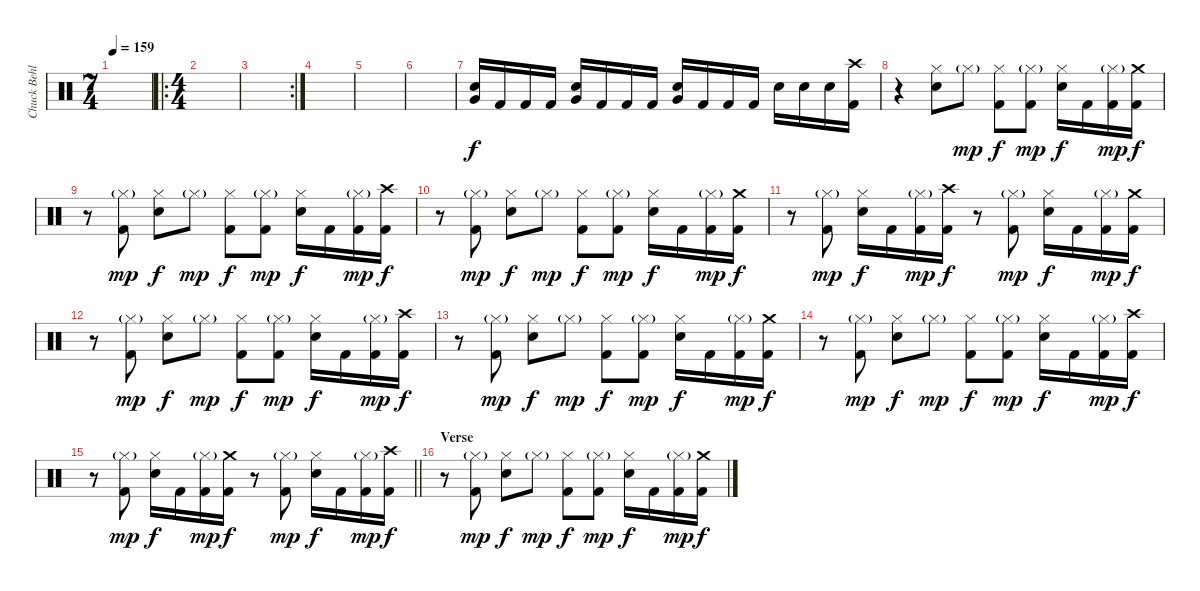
\track ("Chuck Behler" "Chuck Behl") {instrument percussion}
\staff {score}
\articulation defaults
\ts (7 4)
\tempo 159
\clef neutral
\ks c
|
\ro
\ts (4 4)
|
\rc 2
|
|
|
|
("Very Low Tom (hit)" "Snare (hit) 2").16 "Kick (hit) 2".16 "Kick (hit) 2".16 "Kick (hit) 2".16 ("Very Low Tom (hit)" "Snare (hit) 2").16 "Kick (hit) 2".16 "Kick (hit) 2".16 "Kick (hit) 2".16 ("Very Low Tom (hit)" "Snare (hit) 2").16 "Kick (hit) 2".16 "Kick (hit) 2".16 "Kick (hit) 2".16 "Electric Snare (hit)".16 "Electric Snare (hit)".16 "Electric Snare (hit)".16 ("Crash high (hit)" "Kick (hit) 2").16 |
r.4 ("Hi-Hat (closed)" "Snare (hit) 2").8 "Hi-Hat (closed)"{g}.8{dy mp} ("Hi-Hat (closed)" "Kick (hit) 2").8{dy f} ("Hi-Hat (closed)"{g} "Kick (hit) 2").8{dy mp} ("Hi-Hat (closed)" "Snare (hit) 2").16{dy f} "Kick (hit) 2".16 ("Hi-Hat (closed)"{g} "Kick (hit) 2").16{dy mp} ("Crash medium (hit)" "Kick (hit) 2").16{dy f} |
r.8 ("Hi-Hat (closed)"{g} "Kick (hit) 2").8{dy mp} ("Hi-Hat (closed)" "Snare (hit) 2").8{dy f} "Hi-Hat (closed)"{g}.8{dy mp} ("Hi-Hat (closed)" "Kick (hit) 2").8{dy f} ("Hi-Hat (closed)"{g} "Kick (hit) 2").8{dy mp} ("Hi-Hat (closed)" "Snare (hit) 2").16{dy f} "Kick (hit) 2".16 ("Hi-Hat (closed)"{g} "Kick (hit) 2").16{dy mp} ("Crash high (hit)" "Kick (hit) 2").16{dy f} |
r.8 ("Hi-Hat (closed)"{g} "Kick (hit) 2").8{dy mp} ("Hi-Hat (closed)" "Snare (hit) 2").8{dy f} "Hi-Hat (closed)"{g}.8{dy mp} ("Hi-Hat (closed)" "Kick (hit) 2").8{dy f} ("Hi-Hat (closed)"{g} "Kick (hit) 2").8{dy mp} ("Hi-Hat (closed)" "Snare (hit) 2").16{dy f} "Kick (hit) 2".16 ("Hi-Hat (closed)"{g} "Kick (hit) 2").16{dy mp} ("Crash medium (hit)" "Kick (hit) 2").16{dy f} |
r.8 ("Hi-Hat (closed)"{g} "Kick (hit) 2").8{dy mp} ("Hi-Hat (closed)" "Snare (hit) 2").16{dy f} "Kick (hit) 2".16 ("Hi-Hat (closed)"{g} "Kick (hit) 2").16{dy mp} ("Crash high (hit)" "Kick (hit) 2").16{dy f} r.8 ("Hi-Hat (closed)"{g} "Kick (hit) 2").8{dy mp} ("Hi-Hat (closed)" "Snare (hit) 2").16{dy f} "Kick (hit) 2".16 ("Hi-Hat (closed)"{g} "Kick (hit) 2").16{dy mp} ("Crash medium (hit)" "Kick (hit) 2").16{dy f} |
r.8 ("Hi-Hat (closed)"{g} "Kick (hit) 2").8{dy mp} ("Hi-Hat (closed)" "Snare (hit) 2").8{dy f} "Hi-Hat (closed)"{g}.8{dy mp} ("Hi-Hat (closed)" "Kick (hit) 2").8{dy f} ("Hi-Hat (closed)"{g} "Kick (hit) 2").8{dy mp} ("Hi-Hat (closed)" "Snare (hit) 2").16{dy f} "Kick (hit) 2".16 ("Hi-Hat (closed)"{g} "Kick (hit) 2").16{dy mp} ("Crash high (hit)" "Kick (hit) 2").16{dy f} |
r.8 ("Hi-Hat (closed)"{g} "Kick (hit) 2").8{dy mp} ("Hi-Hat (closed)" "Snare (hit) 2").8{dy f} "Hi-Hat (closed)"{g}.8{dy mp} ("Hi-Hat (closed)" "Kick (hit) 2").8{dy f} ("Hi-Hat (closed)"{g} "Kick (hit) 2").8{dy mp} ("Hi-Hat (closed)" "Snare (hit) 2").16{dy f} "Kick (hit) 2".16 ("Hi-Hat (closed)"{g} "Kick (hit) 2").16{dy mp} ("Crash medium (hit)" "Kick (hit) 2").16{dy f} |
r.8 ("Hi-Hat (closed)"{g} "Kick (hit) 2").8{dy mp} ("Hi-Hat (closed)" "Snare (hit) 2").8{dy f} "Hi-Hat (closed)"{g}.8{dy mp} ("Hi-Hat (closed)" "Kick (hit) 2").8{dy f} ("Hi-Hat (closed)"{g} "Kick (hit) 2").8{dy mp} ("Hi-Hat (closed)" "Snare (hit) 2").16{dy f} "Kick (hit) 2".16 ("Hi-Hat (closed)"{g} "Kick (hit) 2").16{dy mp} ("Crash high (hit)" "Kick (hit) 2").16{dy f} |
\barLineRight lightlight
r.8 ("Hi-Hat (closed)"{g} "Kick (hit) 2").8{dy mp} ("Hi-Hat (closed)" "Snare (hit) 2").16{dy f} "Kick (hit) 2".16 ("Hi-Hat (closed)"{g} "Kick (hit) 2").16{dy mp} ("Crash medium (hit)" "Kick (hit) 2").16{dy f} r.8 ("Hi-Hat (closed)"{g} "Kick (hit) 2").8{dy mp} ("Hi-Hat (closed)" "Snare (hit) 2").16{dy f} "Kick (hit) 2".16 ("Hi-Hat (closed)"{g} "Kick (hit) 2").16{dy mp} ("Crash high (hit)" "Kick (hit) 2").16{dy f} |
\section ("" "Verse")
r.8 ("Hi-Hat (closed)"{g} "Kick (hit) 2").8{dy mp} ("Hi-Hat (closed)" "Snare (hit) 2").8{dy f} "Hi-Hat (closed)"{g}.8{dy mp} ("Hi-Hat (closed)" "Kick (hit) 2").8{dy f} ("Hi-Hat (closed)"{g} "Kick (hit) 2").8{dy mp} ("Hi-Hat (closed)" "Snare (hit) 2").16{dy f} "Kick (hit) 2".16 ("Hi-Hat (closed)"{g} "Kick (hit) 2").16{dy mp} ("Crash medium (hit)" "Kick (hit) 2").16{dy f}
